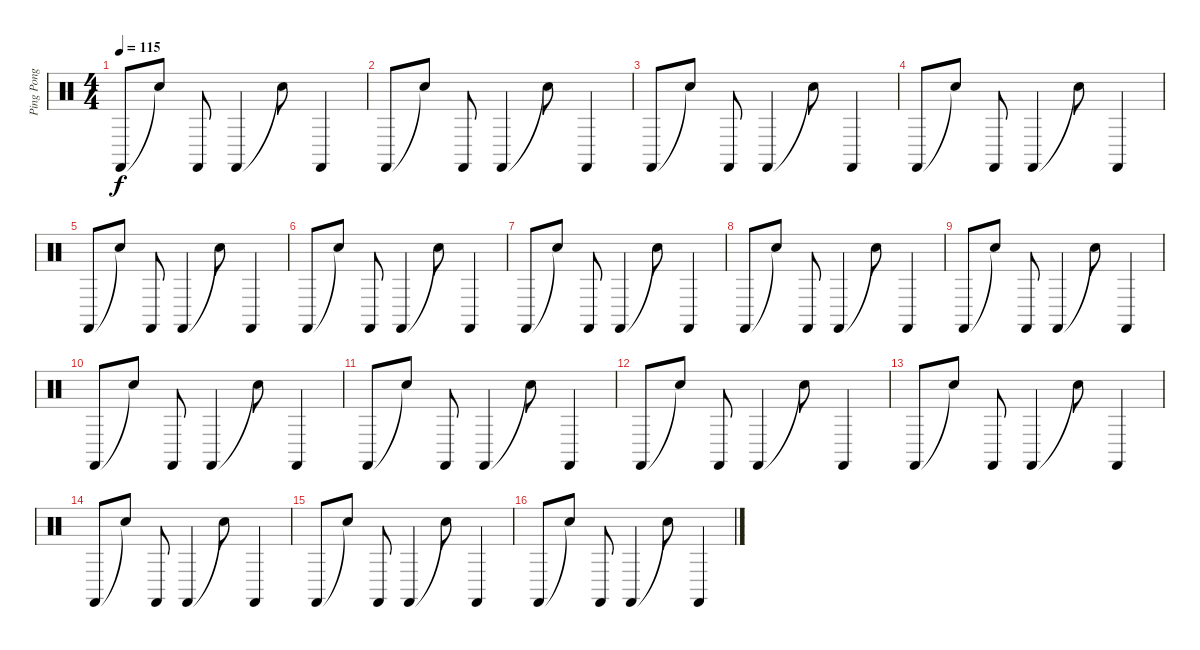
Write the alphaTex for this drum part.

\track ("Ping Pong" "Ping Pong") {instrument percussion}
\staff {score}
\articulation defaults
\ts (4 4)
\tempo 115
\clef neutral
\ks c "Castanets (hit)".8{dy f} "Snare (hit)"{t}.8 "Castanets (hit)".8 "Castanets (hit)".4 "Snare (hit)"{t}.8 "Castanets (hit)".4
|
"Castanets (hit)".8 "Snare (hit)"{t}.8 "Castanets (hit)".8 "Castanets (hit)".4 "Snare (hit)"{t}.8 "Castanets (hit)".4 |
"Castanets (hit)".8 "Snare (hit)"{t}.8 "Castanets (hit)".8 "Castanets (hit)".4 "Snare (hit)"{t}.8 "Castanets (hit)".4 |
"Castanets (hit)".8 "Snare (hit)"{t}.8 "Castanets (hit)".8 "Castanets (hit)".4 "Snare (hit)"{t}.8 "Castanets (hit)".4 |
"Castanets (hit)".8 "Snare (hit)"{t}.8 "Castanets (hit)".8 "Castanets (hit)".4 "Snare (hit)"{t}.8 "Castanets (hit)".4 |
"Castanets (hit)".8 "Snare (hit)"{t}.8 "Castanets (hit)".8 "Castanets (hit)".4 "Snare (hit)"{t}.8 "Castanets (hit)".4 |
"Castanets (hit)".8 "Snare (hit)"{t}.8 "Castanets (hit)".8 "Castanets (hit)".4 "Snare (hit)"{t}.8 "Castanets (hit)".4 |
"Castanets (hit)".8 "Snare (hit)"{t}.8 "Castanets (hit)".8 "Castanets (hit)".4 "Snare (hit)"{t}.8 "Castanets (hit)".4 |
"Castanets (hit)".8 "Snare (hit)"{t}.8 "Castanets (hit)".8 "Castanets (hit)".4 "Snare (hit)"{t}.8 "Castanets (hit)".4 |
"Castanets (hit)".8 "Snare (hit)"{t}.8 "Castanets (hit)".8 "Castanets (hit)".4 "Snare (hit)"{t}.8 "Castanets (hit)".4 |
"Castanets (hit)".8 "Snare (hit)"{t}.8 "Castanets (hit)".8 "Castanets (hit)".4 "Snare (hit)"{t}.8 "Castanets (hit)".4 |
"Castanets (hit)".8 "Snare (hit)"{t}.8 "Castanets (hit)".8 "Castanets (hit)".4 "Snare (hit)"{t}.8 "Castanets (hit)".4 |
"Castanets (hit)".8 "Snare (hit)"{t}.8 "Castanets (hit)".8 "Castanets (hit)".4 "Snare (hit)"{t}.8 "Castanets (hit)".4 |
"Castanets (hit)".8 "Snare (hit)"{t}.8 "Castanets (hit)".8 "Castanets (hit)".4 "Snare (hit)"{t}.8 "Castanets (hit)".4 |
"Castanets (hit)".8 "Snare (hit)"{t}.8 "Castanets (hit)".8 "Castanets (hit)".4 "Snare (hit)"{t}.8 "Castanets (hit)".4 |
"Castanets (hit)".8 "Snare (hit)"{t}.8 "Castanets (hit)".8 "Castanets (hit)".4 "Snare (hit)"{t}.8 "Castanets (hit)".4
